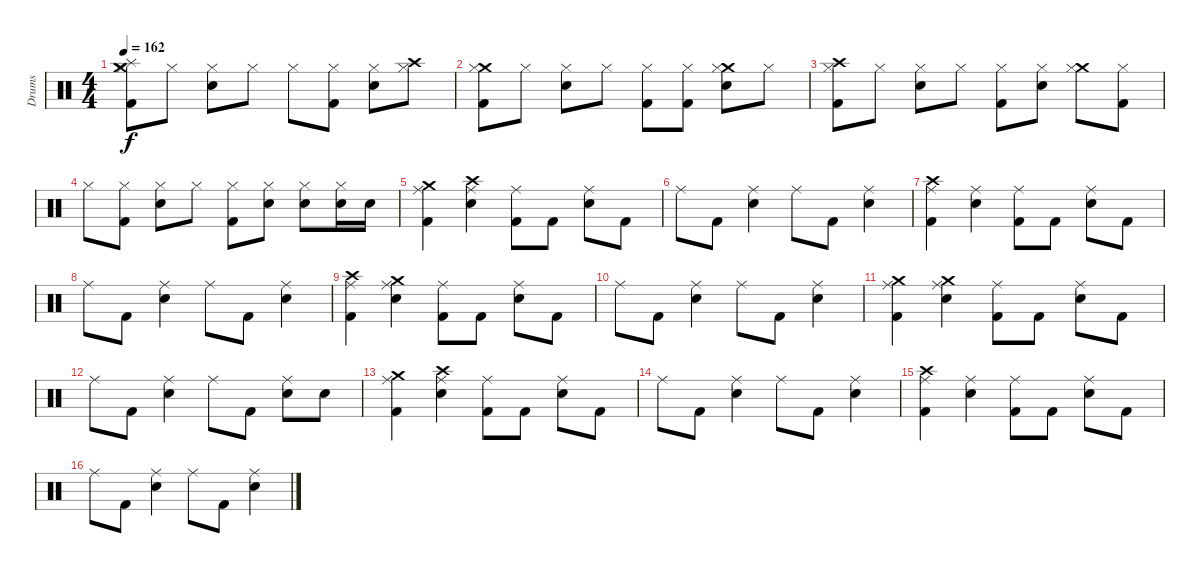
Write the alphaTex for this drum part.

\track ("Drums" "Drums") {instrument percussion}
\staff {score}
\articulation defaults
\ts (4 4)
\tempo 162
\clef neutral
\ks c
("Crash medium (hit)" "Hi-Hat (closed)" "Splash (hit)" "Kick (hit) 2").8{dy f} "Hi-Hat (closed)".8 ("Hi-Hat (closed)" "Electric Snare (hit)").8 "Hi-Hat (closed)".8 "Hi-Hat (closed)".8 ("Hi-Hat (closed)" "Kick (hit) 2").8 ("Hi-Hat (closed)" "Electric Snare (hit)").8 ("Crash high (hit)" "Hi-Hat (closed)").8 |
("Crash medium (hit)" "Hi-Hat (closed)" "Kick (hit) 2").8 "Hi-Hat (closed)".8 ("Hi-Hat (closed)" "Electric Snare (hit)").8 "Hi-Hat (closed)".8 ("Hi-Hat (closed)" "Kick (hit) 2").8 ("Hi-Hat (closed)" "Kick (hit) 2").8 ("Crash medium (hit)" "Hi-Hat (closed)" "Electric Snare (hit)").8 "Hi-Hat (closed)".8 |
("Crash high (hit)" "Hi-Hat (closed)" "Kick (hit) 2").8 "Hi-Hat (closed)".8 ("Hi-Hat (closed)" "Electric Snare (hit)").8 "Hi-Hat (closed)".8 ("Hi-Hat (closed)" "Kick (hit) 2").8 ("Hi-Hat (closed)" "Electric Snare (hit)").8 ("Crash medium (hit)" "Hi-Hat (closed)").8 ("Hi-Hat (closed)" "Kick (hit) 2").8 |
"Hi-Hat (closed)".8 ("Hi-Hat (closed)" "Kick (hit) 2").8 ("Hi-Hat (closed)" "Electric Snare (hit)").8 "Hi-Hat (closed)".8 ("Hi-Hat (closed)" "Kick (hit) 2").8 ("Hi-Hat (closed)" "Electric Snare (hit)").8 ("Hi-Hat (closed)" "Electric Snare (hit)").8 ("Hi-Hat (closed)" "Electric Snare (hit)").16 "Electric Snare (hit)".16 |
("Crash medium (hit)" "Ride (middle)" "Kick (hit) 2").4 ("Crash high (hit)" "Ride (middle)" "Electric Snare (hit)").4 ("Ride (middle)" "Kick (hit) 2").8 "Kick (hit) 2".8 ("Ride (middle)" "Electric Snare (hit)").8 "Kick (hit) 2".8 |
"Ride (middle)".8 "Kick (hit) 2".8 ("Ride (middle)" "Electric Snare (hit)").4 "Ride (middle)".8 "Kick (hit) 2".8 ("Ride (middle)" "Electric Snare (hit)").4 |
("Crash high (hit)" "Ride (middle)" "Kick (hit) 2").4 ("Ride (middle)" "Electric Snare (hit)").4 ("Ride (middle)" "Kick (hit) 2").8 "Kick (hit) 2".8 ("Ride (middle)" "Electric Snare (hit)").8 "Kick (hit) 2".8 |
"Ride (middle)".8 "Kick (hit) 2".8 ("Ride (middle)" "Electric Snare (hit)").4 "Ride (middle)".8 "Kick (hit) 2".8 ("Ride (middle)" "Electric Snare (hit)").4 |
("Crash high (hit)" "Ride (middle)" "Kick (hit) 2").4 ("Crash medium (hit)" "Ride (middle)" "Electric Snare (hit)").4 ("Ride (middle)" "Kick (hit) 2").8 "Kick (hit) 2".8 ("Ride (middle)" "Electric Snare (hit)").8 "Kick (hit) 2".8 |
"Ride (middle)".8 "Kick (hit) 2".8 ("Ride (middle)" "Electric Snare (hit)").4 "Ride (middle)".8 "Kick (hit) 2".8 ("Ride (middle)" "Electric Snare (hit)").4 |
("Crash medium (hit)" "Ride (middle)" "Kick (hit) 2").4 ("Crash medium (hit)" "Ride (middle)" "Electric Snare (hit)").4 ("Ride (middle)" "Kick (hit) 2").8 "Kick (hit) 2".8 ("Ride (middle)" "Electric Snare (hit)").8 "Kick (hit) 2".8 |
"Ride (middle)".8 "Kick (hit) 2".8 ("Ride (middle)" "Electric Snare (hit)").4 "Ride (middle)".8 "Kick (hit) 2".8 ("Ride (middle)" "Electric Snare (hit)").8 "Electric Snare (hit)".8 |
("Crash medium (hit)" "Ride (middle)" "Kick (hit) 2").4 ("Crash high (hit)" "Ride (middle)" "Electric Snare (hit)").4 ("Ride (middle)" "Kick (hit) 2").8 "Kick (hit) 2".8 ("Ride (middle)" "Electric Snare (hit)").8 "Kick (hit) 2".8 |
"Ride (middle)".8 "Kick (hit) 2".8 ("Ride (middle)" "Electric Snare (hit)").4 "Ride (middle)".8 "Kick (hit) 2".8 ("Ride (middle)" "Electric Snare (hit)").4 |
("Crash high (hit)" "Ride (middle)" "Kick (hit) 2").4 ("Ride (middle)" "Electric Snare (hit)").4 ("Ride (middle)" "Kick (hit) 2").8 "Kick (hit) 2".8 ("Ride (middle)" "Electric Snare (hit)").8 "Kick (hit) 2".8 |
"Ride (middle)".8 "Kick (hit) 2".8 ("Ride (middle)" "Electric Snare (hit)").4 "Ride (middle)".8 "Kick (hit) 2".8 ("Ride (middle)" "Electric Snare (hit)").4
